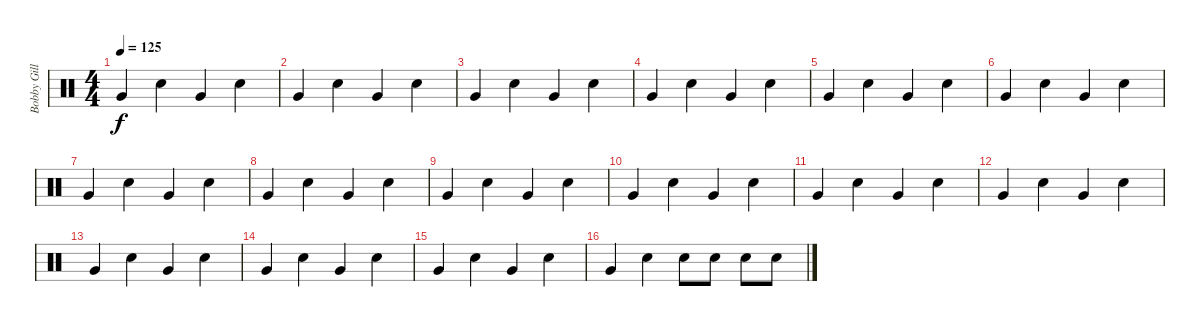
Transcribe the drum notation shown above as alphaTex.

\track ("Bobby Gillespie" "Bobby Gill") {instrument percussion}
\staff {score}
\articulation defaults
\ts (4 4)
\tempo 125
\clef neutral
\ks c "Very Low Tom (hit)".4{dy f} "Electric Snare (hit)".4 "Very Low Tom (hit)".4 "Electric Snare (hit)".4
|
"Very Low Tom (hit)".4 "Electric Snare (hit)".4 "Very Low Tom (hit)".4 "Electric Snare (hit)".4 |
"Very Low Tom (hit)".4 "Electric Snare (hit)".4 "Very Low Tom (hit)".4 "Electric Snare (hit)".4 |
"Very Low Tom (hit)".4 "Electric Snare (hit)".4 "Very Low Tom (hit)".4 "Electric Snare (hit)".4 |
"Very Low Tom (hit)".4 "Electric Snare (hit)".4 "Very Low Tom (hit)".4 "Electric Snare (hit)".4 |
"Very Low Tom (hit)".4 "Electric Snare (hit)".4 "Very Low Tom (hit)".4 "Electric Snare (hit)".4 |
"Very Low Tom (hit)".4 "Electric Snare (hit)".4 "Very Low Tom (hit)".4 "Electric Snare (hit)".4 |
"Very Low Tom (hit)".4 "Electric Snare (hit)".4 "Very Low Tom (hit)".4 "Electric Snare (hit)".4 |
"Very Low Tom (hit)".4 "Electric Snare (hit)".4 "Very Low Tom (hit)".4 "Electric Snare (hit)".4 |
"Very Low Tom (hit)".4 "Electric Snare (hit)".4 "Very Low Tom (hit)".4 "Electric Snare (hit)".4 |
"Very Low Tom (hit)".4 "Electric Snare (hit)".4 "Very Low Tom (hit)".4 "Electric Snare (hit)".4 |
"Very Low Tom (hit)".4 "Electric Snare (hit)".4 "Very Low Tom (hit)".4 "Electric Snare (hit)".4 |
"Very Low Tom (hit)".4 "Electric Snare (hit)".4 "Very Low Tom (hit)".4 "Electric Snare (hit)".4 |
"Very Low Tom (hit)".4 "Electric Snare (hit)".4 "Very Low Tom (hit)".4 "Electric Snare (hit)".4 |
"Very Low Tom (hit)".4 "Electric Snare (hit)".4 "Very Low Tom (hit)".4 "Electric Snare (hit)".4 |
"Very Low Tom (hit)".4 "Electric Snare (hit)".4 "Electric Snare (hit)".8 "Electric Snare (hit)".8 "Electric Snare (hit)".8 "Electric Snare (hit)".8
